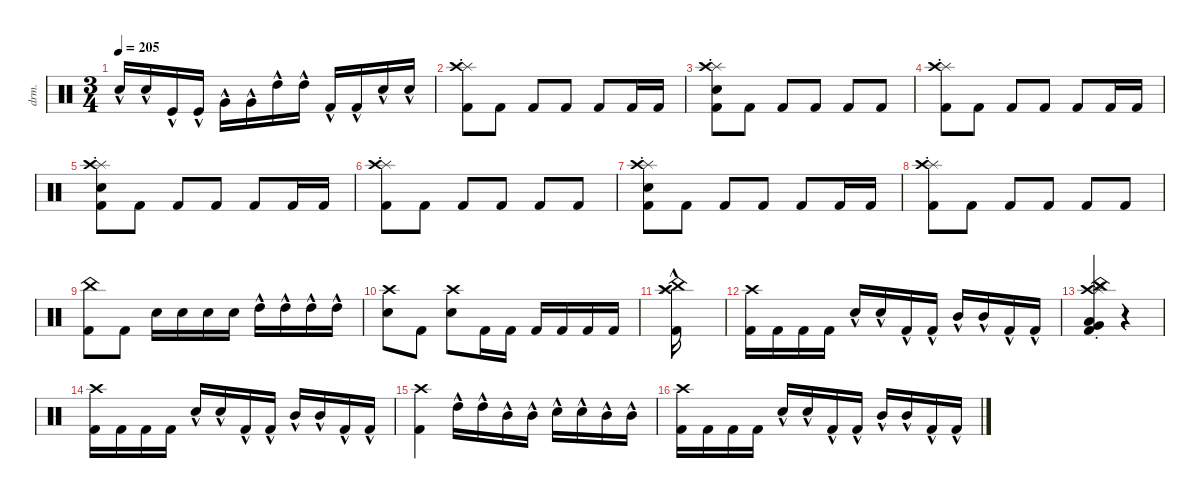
\defaultSystemsLayout 4
\hideDynamics
\bracketExtendMode nobrackets
\otherSystemsTrackNameOrientation horizontal
\track ("Drumkit" "drm.") {instrument percussion}
\staff {score}
\articulation defaults
\ts (3 4)
\beaming (8 2 2 2)
\tempo 205
\clef neutral
\ks c "Snare (hit) 2"{hac}.16{dy mf} "Snare (hit) 2"{hac}.16 "Kick (hit)"{hac}.16 "Kick (hit)"{hac}.16 "Very Low Tom (hit)"{hac}.16 "Very Low Tom (hit)"{hac}.16 "High Tom (hit)"{hac}.16 "High Tom (hit)"{hac}.16 "Kick (hit) 2"{hac}.16 "Kick (hit) 2"{hac}.16 "Snare (hit) 2"{hac}.16 "Snare (hit) 2"{hac}.16
|
("Kick (hit) 2" "Splash (choke)" "Crash high (hit)").8 "Kick (hit) 2".8 "Kick (hit) 2".8 "Kick (hit) 2".8 "Kick (hit) 2".8 "Kick (hit) 2".16 "Kick (hit) 2".16 |
("Kick (hit) 2" "Snare (hit) 2" "Splash (choke)" "Crash high (hit)").8 "Kick (hit) 2".8 "Kick (hit) 2".8 "Kick (hit) 2".8 "Kick (hit) 2".8 "Kick (hit) 2".8 |
("Kick (hit) 2" "Splash (choke)" "Crash high (hit)").8 "Kick (hit) 2".8 "Kick (hit) 2".8 "Kick (hit) 2".8 "Kick (hit) 2".8 "Kick (hit) 2".16 "Kick (hit) 2".16 |
("Kick (hit) 2" "Splash (choke)" "Crash high (hit)" "Snare (hit) 2").8 "Kick (hit) 2".8 "Kick (hit) 2".8 "Kick (hit) 2".8 "Kick (hit) 2".8 "Kick (hit) 2".16 "Kick (hit) 2".16 |
("Kick (hit) 2" "Splash (choke)" "Crash high (hit)").8 "Kick (hit) 2".8 "Kick (hit) 2".8 "Kick (hit) 2".8 "Kick (hit) 2".8 "Kick (hit) 2".8 |
("Kick (hit) 2" "Snare (hit) 2" "Splash (choke)" "Crash high (hit)").8 "Kick (hit) 2".8 "Kick (hit) 2".8 "Kick (hit) 2".8 "Kick (hit) 2".8 "Kick (hit) 2".16 "Kick (hit) 2".16 |
("Kick (hit) 2" "Splash (choke)" "Crash high (hit)").8 "Kick (hit) 2".8 "Kick (hit) 2".8 "Kick (hit) 2".8 "Kick (hit) 2".8 "Kick (hit) 2".8 |
("China (choke)" "Kick (hit) 2").8 "Kick (hit) 2".8 "Snare (hit) 2".16 "Snare (hit) 2".16 "Snare (hit) 2".16 "Snare (hit) 2".16 "High Tom (hit)"{hac}.16 "High Tom (hit)"{hac}.16 "High Tom (hit)"{hac}.16 "High Tom (hit)"{hac}.16 |
("Crash high (hit)" "Snare (hit) 2").8 "Kick (hit) 2".8 ("Snare (hit) 2" "Crash high (hit)").8 "Kick (hit) 2".16 "Kick (hit) 2".16 "Kick (hit) 2".16 "Kick (hit) 2".16 "Kick (hit) 2".16 "Kick (hit) 2".16 |
("Splash (hit)" "Crash high (hit)" "China (hit)" "Kick (hit) 2"{hac}).16 |
("Kick (hit) 2" "Crash high (hit)").16 "Kick (hit) 2".16 "Kick (hit) 2".16 "Kick (hit) 2".16 "Snare (hit) 2"{hac}.16 "Snare (hit) 2"{hac}.16 "Kick (hit) 2"{hac}.16 "Kick (hit) 2"{hac}.16 "Mid Tom (hit)"{hac}.16 "Mid Tom (hit)"{hac}.16 "Kick (hit) 2"{hac}.16 "Kick (hit) 2"{hac}.16 |
("Crash high (hit)" "Splash (choke)" "China (hit)" "Kick (hit) 2" "Cymbal (hit)" "Very Low Tom (hit)" "Low Tom (hit)").4 r.4 |
("Kick (hit) 2" "Crash high (hit)").16 "Kick (hit) 2".16 "Kick (hit) 2".16 "Kick (hit) 2".16 "Snare (hit) 2"{hac}.16 "Snare (hit) 2"{hac}.16 "Kick (hit) 2"{hac}.16 "Kick (hit) 2"{hac}.16 "Mid Tom (hit)"{hac}.16 "Mid Tom (hit)"{hac}.16 "Kick (hit) 2"{hac}.16 "Kick (hit) 2"{hac}.16 |
("Crash high (hit)" "Kick (hit) 2").4 "High Tom (hit)"{hac}.16 "High Tom (hit)"{hac}.16 "Mid Tom (hit)"{hac}.16 "Mid Tom (hit)"{hac}.16 "Snare (hit) 2"{hac}.16 "Snare (hit) 2"{hac}.16 "Mid Tom (hit)"{hac}.16 "Mid Tom (hit)"{hac}.16 |
("Kick (hit) 2" "Crash high (hit)").16 "Kick (hit) 2".16 "Kick (hit) 2".16 "Kick (hit) 2".16 "Snare (hit) 2"{hac}.16 "Snare (hit) 2"{hac}.16 "Kick (hit) 2"{hac}.16 "Kick (hit) 2"{hac}.16 "Mid Tom (hit)"{hac}.16 "Mid Tom (hit)"{hac}.16 "Kick (hit) 2"{hac}.16 "Kick (hit) 2"{hac}.16
